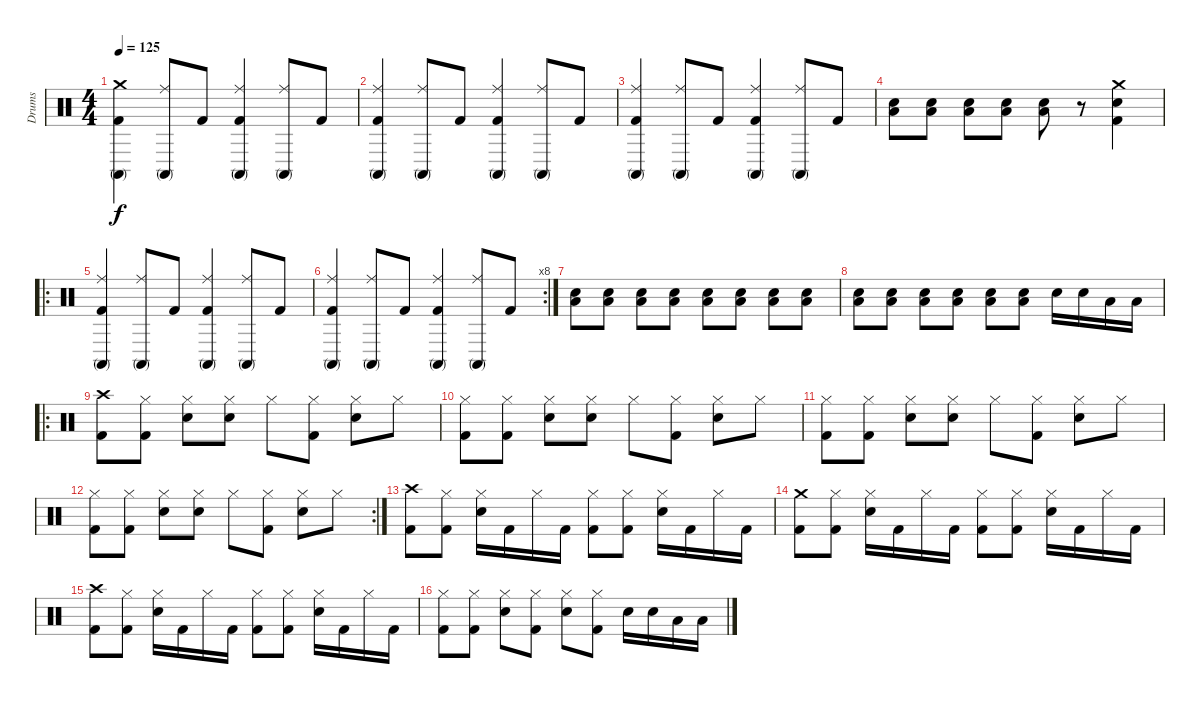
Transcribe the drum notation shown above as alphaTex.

\track ("Drums" "Drums") {instrument percussion}
\staff {score}
\articulation defaults
\ts (4 4)
\tempo 125
\clef neutral
\ks c
("Crash medium (hit)" "Conga high (mute)" "Kick (hit) 2").4{dy f} ("Ride (middle)" "Conga high (mute)").8 "Kick (hit) 2".8 ("Ride (middle)" "Conga high (mute)" "Kick (hit) 2").4 ("Ride (middle)" "Conga high (mute)").8 "Kick (hit) 2".8 |
("Ride (middle)" "Conga high (mute)" "Kick (hit) 2").4 ("Ride (middle)" "Conga high (mute)").8 "Kick (hit) 2".8 ("Ride (middle)" "Conga high (mute)" "Kick (hit) 2").4 ("Ride (middle)" "Conga high (mute)").8 "Kick (hit) 2".8 |
("Ride (middle)" "Conga high (mute)" "Kick (hit) 2").4 ("Ride (middle)" "Conga high (mute)").8 "Kick (hit) 2".8 ("Ride (middle)" "Conga high (mute)" "Kick (hit) 2").4 ("Ride (middle)" "Conga high (mute)").8 "Kick (hit) 2".8 |
("Low Floor Tom (hit)" "Electric Snare (hit)").8 ("Low Floor Tom (hit)" "Electric Snare (hit)").8 ("Low Floor Tom (hit)" "Electric Snare (hit)").8 ("Low Floor Tom (hit)" "Electric Snare (hit)").8 ("Low Floor Tom (hit)" "Electric Snare (hit)").8 r.8 ("Crash medium (hit)" "Electric Snare (hit)" "Kick (hit) 2").4 |
\ro
("Ride (middle)" "Conga high (mute)" "Kick (hit) 2").4 ("Ride (middle)" "Conga high (mute)").8 "Kick (hit) 2".8 ("Ride (middle)" "Conga high (mute)" "Kick (hit) 2").4 ("Ride (middle)" "Conga high (mute)").8 "Kick (hit) 2".8 |
\rc 8
("Ride (middle)" "Conga high (mute)" "Kick (hit) 2").4 ("Ride (middle)" "Conga high (mute)").8 "Kick (hit) 2".8 ("Ride (middle)" "Conga high (mute)" "Kick (hit) 2").4 ("Ride (middle)" "Conga high (mute)").8 "Kick (hit) 2".8 |
("Low Floor Tom (hit)" "Electric Snare (hit)").8 ("Low Floor Tom (hit)" "Electric Snare (hit)").8 ("Low Floor Tom (hit)" "Electric Snare (hit)").8 ("Low Floor Tom (hit)" "Electric Snare (hit)").8 ("Low Floor Tom (hit)" "Electric Snare (hit)").8 ("Low Floor Tom (hit)" "Electric Snare (hit)").8 ("Low Floor Tom (hit)" "Electric Snare (hit)").8 ("Low Floor Tom (hit)" "Electric Snare (hit)").8 |
("Low Floor Tom (hit)" "Electric Snare (hit)").8 ("Low Floor Tom (hit)" "Electric Snare (hit)").8 ("Low Floor Tom (hit)" "Electric Snare (hit)").8 ("Low Floor Tom (hit)" "Electric Snare (hit)").8 ("Low Floor Tom (hit)" "Electric Snare (hit)").8 ("Low Floor Tom (hit)" "Electric Snare (hit)").8 "Electric Snare (hit)".16 "Electric Snare (hit)".16 "Low Tom (hit)".16 "Low Tom (hit)".16 |
\ro
("Crash high (hit)" "Kick (hit) 2").8 ("Hi-Hat (closed)" "Kick (hit) 2").8 ("Hi-Hat (closed)" "Electric Snare (hit)").8 ("Hi-Hat (closed)" "Electric Snare (hit)").8 "Hi-Hat (closed)".8 ("Hi-Hat (closed)" "Kick (hit) 2").8 ("Hi-Hat (closed)" "Electric Snare (hit)").8 "Hi-Hat (closed)".8 |
("Hi-Hat (closed)" "Kick (hit) 2").8 ("Hi-Hat (closed)" "Kick (hit) 2").8 ("Hi-Hat (closed)" "Electric Snare (hit)").8 ("Hi-Hat (closed)" "Electric Snare (hit)").8 "Hi-Hat (closed)".8 ("Hi-Hat (closed)" "Kick (hit) 2").8 ("Hi-Hat (closed)" "Electric Snare (hit)").8 "Hi-Hat (closed)".8 |
("Hi-Hat (closed)" "Kick (hit) 2").8 ("Hi-Hat (closed)" "Kick (hit) 2").8 ("Hi-Hat (closed)" "Electric Snare (hit)").8 ("Hi-Hat (closed)" "Electric Snare (hit)").8 "Hi-Hat (closed)".8 ("Hi-Hat (closed)" "Kick (hit) 2").8 ("Hi-Hat (closed)" "Electric Snare (hit)").8 "Hi-Hat (closed)".8 |
\rc 2
("Hi-Hat (closed)" "Kick (hit) 2").8 ("Hi-Hat (closed)" "Kick (hit) 2").8 ("Hi-Hat (closed)" "Electric Snare (hit)").8 ("Hi-Hat (closed)" "Electric Snare (hit)").8 "Hi-Hat (closed)".8 ("Hi-Hat (closed)" "Kick (hit) 2").8 ("Hi-Hat (closed)" "Electric Snare (hit)").8 "Hi-Hat (closed)".8 |
("Crash high (hit)" "Kick (hit) 2").8 ("Hi-Hat (closed)" "Kick (hit) 2").8 ("Hi-Hat (closed)" "Electric Snare (hit)").16 "Kick (hit) 2".16 "Hi-Hat (closed)".16 "Kick (hit) 2".16 ("Hi-Hat (closed)" "Kick (hit) 2").8 ("Hi-Hat (closed)" "Kick (hit) 2").8 ("Hi-Hat (closed)" "Electric Snare (hit)").16 "Kick (hit) 2".16 "Hi-Hat (closed)".16 "Kick (hit) 2".16 |
("Crash medium (hit)" "Kick (hit) 2").8 ("Hi-Hat (closed)" "Kick (hit) 2").8 ("Hi-Hat (closed)" "Electric Snare (hit)").16 "Kick (hit) 2".16 "Hi-Hat (closed)".16 "Kick (hit) 2".16 ("Hi-Hat (closed)" "Kick (hit) 2").8 ("Hi-Hat (closed)" "Kick (hit) 2").8 ("Hi-Hat (closed)" "Electric Snare (hit)").16 "Kick (hit) 2".16 "Hi-Hat (closed)".16 "Kick (hit) 2".16 |
("Crash high (hit)" "Kick (hit) 2").8 ("Hi-Hat (closed)" "Kick (hit) 2").8 ("Hi-Hat (closed)" "Electric Snare (hit)").16 "Kick (hit) 2".16 "Hi-Hat (closed)".16 "Kick (hit) 2".16 ("Hi-Hat (closed)" "Kick (hit) 2").8 ("Hi-Hat (closed)" "Kick (hit) 2").8 ("Hi-Hat (closed)" "Electric Snare (hit)").16 "Kick (hit) 2".16 "Hi-Hat (closed)".16 "Kick (hit) 2".16 |
("Hi-Hat (closed)" "Kick (hit) 2").8 ("Hi-Hat (closed)" "Kick (hit) 2").8 ("Hi-Hat (closed)" "Electric Snare (hit)").8 ("Hi-Hat (closed)" "Kick (hit) 2").8 ("Hi-Hat (closed)" "Electric Snare (hit)").8 ("Hi-Hat (closed)" "Kick (hit) 2").8 "Electric Snare (hit)".16 "Electric Snare (hit)".16 "Low Tom (hit)".16 "Low Tom (hit)".16
